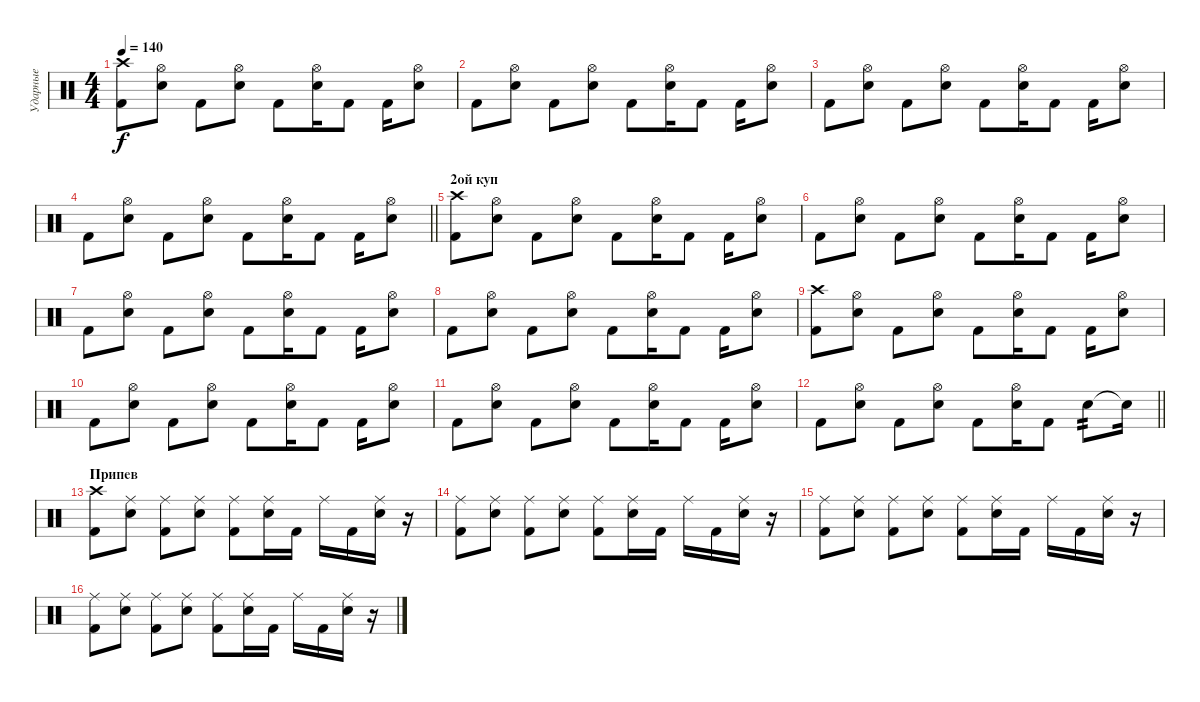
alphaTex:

\track ("Ударные" "Ударные") {instrument percussion}
\staff {score}
\articulation defaults
\ts (4 4)
\tempo 140
\clef neutral
\ks c
("Crash high (hit)" "Kick (hit) 2").8{dy f} ("Hi-Hat (open)" "Electric Snare (hit)").8 "Kick (hit) 2".8 ("Hi-Hat (open)" "Electric Snare (hit)").8 "Kick (hit) 2".8 ("Hi-Hat (open)" "Electric Snare (hit)").16 "Kick (hit) 2".8 "Kick (hit) 2".16 ("Hi-Hat (open)" "Electric Snare (hit)").8 |
"Kick (hit) 2".8 ("Hi-Hat (open)" "Electric Snare (hit)").8 "Kick (hit) 2".8 ("Hi-Hat (open)" "Electric Snare (hit)").8 "Kick (hit) 2".8 ("Hi-Hat (open)" "Electric Snare (hit)").16 "Kick (hit) 2".8 "Kick (hit) 2".16 ("Hi-Hat (open)" "Electric Snare (hit)").8 |
"Kick (hit) 2".8 ("Hi-Hat (open)" "Electric Snare (hit)").8 "Kick (hit) 2".8 ("Hi-Hat (open)" "Electric Snare (hit)").8 "Kick (hit) 2".8 ("Hi-Hat (open)" "Electric Snare (hit)").16 "Kick (hit) 2".8 "Kick (hit) 2".16 ("Hi-Hat (open)" "Electric Snare (hit)").8 |
\barLineRight lightlight "Kick (hit) 2".8
("Hi-Hat (open)" "Electric Snare (hit)").8 "Kick (hit) 2".8 ("Hi-Hat (open)" "Electric Snare (hit)").8 "Kick (hit) 2".8 ("Hi-Hat (open)" "Electric Snare (hit)").16 "Kick (hit) 2".8 "Kick (hit) 2".16 ("Hi-Hat (open)" "Electric Snare (hit)").8 |
\section ("" "2ой куп")
("Crash high (hit)" "Kick (hit) 2").8 ("Hi-Hat (open)" "Electric Snare (hit)").8 "Kick (hit) 2".8 ("Hi-Hat (open)" "Electric Snare (hit)").8 "Kick (hit) 2".8 ("Hi-Hat (open)" "Electric Snare (hit)").16 "Kick (hit) 2".8 "Kick (hit) 2".16 ("Hi-Hat (open)" "Electric Snare (hit)").8 |
"Kick (hit) 2".8 ("Hi-Hat (open)" "Electric Snare (hit)").8 "Kick (hit) 2".8 ("Hi-Hat (open)" "Electric Snare (hit)").8 "Kick (hit) 2".8 ("Hi-Hat (open)" "Electric Snare (hit)").16 "Kick (hit) 2".8 "Kick (hit) 2".16 ("Hi-Hat (open)" "Electric Snare (hit)").8 |
"Kick (hit) 2".8 ("Hi-Hat (open)" "Electric Snare (hit)").8 "Kick (hit) 2".8 ("Hi-Hat (open)" "Electric Snare (hit)").8 "Kick (hit) 2".8 ("Hi-Hat (open)" "Electric Snare (hit)").16 "Kick (hit) 2".8 "Kick (hit) 2".16 ("Hi-Hat (open)" "Electric Snare (hit)").8 |
"Kick (hit) 2".8 ("Hi-Hat (open)" "Electric Snare (hit)").8 "Kick (hit) 2".8 ("Hi-Hat (open)" "Electric Snare (hit)").8 "Kick (hit) 2".8 ("Hi-Hat (open)" "Electric Snare (hit)").16 "Kick (hit) 2".8 "Kick (hit) 2".16 ("Hi-Hat (open)" "Electric Snare (hit)").8 |
("Crash high (hit)" "Kick (hit) 2").8 ("Hi-Hat (open)" "Electric Snare (hit)").8 "Kick (hit) 2".8 ("Hi-Hat (open)" "Electric Snare (hit)").8 "Kick (hit) 2".8 ("Hi-Hat (open)" "Electric Snare (hit)").16 "Kick (hit) 2".8 "Kick (hit) 2".16 ("Hi-Hat (open)" "Electric Snare (hit)").8 |
"Kick (hit) 2".8 ("Hi-Hat (open)" "Electric Snare (hit)").8 "Kick (hit) 2".8 ("Hi-Hat (open)" "Electric Snare (hit)").8 "Kick (hit) 2".8 ("Hi-Hat (open)" "Electric Snare (hit)").16 "Kick (hit) 2".8 "Kick (hit) 2".16 ("Hi-Hat (open)" "Electric Snare (hit)").8 |
"Kick (hit) 2".8 ("Hi-Hat (open)" "Electric Snare (hit)").8 "Kick (hit) 2".8 ("Hi-Hat (open)" "Electric Snare (hit)").8 "Kick (hit) 2".8 ("Hi-Hat (open)" "Electric Snare (hit)").16 "Kick (hit) 2".8 "Kick (hit) 2".16 ("Hi-Hat (open)" "Electric Snare (hit)").8 |
\barLineRight lightlight "Kick (hit) 2".8
("Hi-Hat (open)" "Electric Snare (hit)").8 "Kick (hit) 2".8 ("Hi-Hat (open)" "Electric Snare (hit)").8 "Kick (hit) 2".8 ("Hi-Hat (open)" "Electric Snare (hit)").16 "Kick (hit) 2".8 "Electric Snare (hit)".8{tp 2} "Snare (hit)"{t}.16 |
\section ("" "Припев")
("Crash high (hit)" "Kick (hit) 2").8 ("Ride (middle)" "Electric Snare (hit)").8 ("Ride (middle)" "Kick (hit) 2").8 ("Ride (middle)" "Electric Snare (hit)").8 ("Ride (middle)" "Kick (hit) 2").8 ("Ride (middle)" "Electric Snare (hit)").16 "Kick (hit) 2".16 "Ride (middle)".16 "Kick (hit) 2".16 ("Ride (middle)" "Electric Snare (hit)").16 r.16 |
("Ride (middle)" "Kick (hit) 2").8 ("Ride (middle)" "Electric Snare (hit)").8 ("Ride (middle)" "Kick (hit) 2").8 ("Ride (middle)" "Electric Snare (hit)").8 ("Ride (middle)" "Kick (hit) 2").8 ("Ride (middle)" "Electric Snare (hit)").16 "Kick (hit) 2".16 "Ride (middle)".16 "Kick (hit) 2".16 ("Ride (middle)" "Electric Snare (hit)").16 r.16 |
("Ride (middle)" "Kick (hit) 2").8 ("Ride (middle)" "Electric Snare (hit)").8 ("Ride (middle)" "Kick (hit) 2").8 ("Ride (middle)" "Electric Snare (hit)").8 ("Ride (middle)" "Kick (hit) 2").8 ("Ride (middle)" "Electric Snare (hit)").16 "Kick (hit) 2".16 "Ride (middle)".16 "Kick (hit) 2".16 ("Ride (middle)" "Electric Snare (hit)").16 r.16 |
("Ride (middle)" "Kick (hit) 2").8 ("Ride (middle)" "Electric Snare (hit)").8 ("Ride (middle)" "Kick (hit) 2").8 ("Ride (middle)" "Electric Snare (hit)").8 ("Ride (middle)" "Kick (hit) 2").8 ("Ride (middle)" "Electric Snare (hit)").16 "Kick (hit) 2".16 "Ride (middle)".16 "Kick (hit) 2".16 ("Ride (middle)" "Electric Snare (hit)").16 r.16
